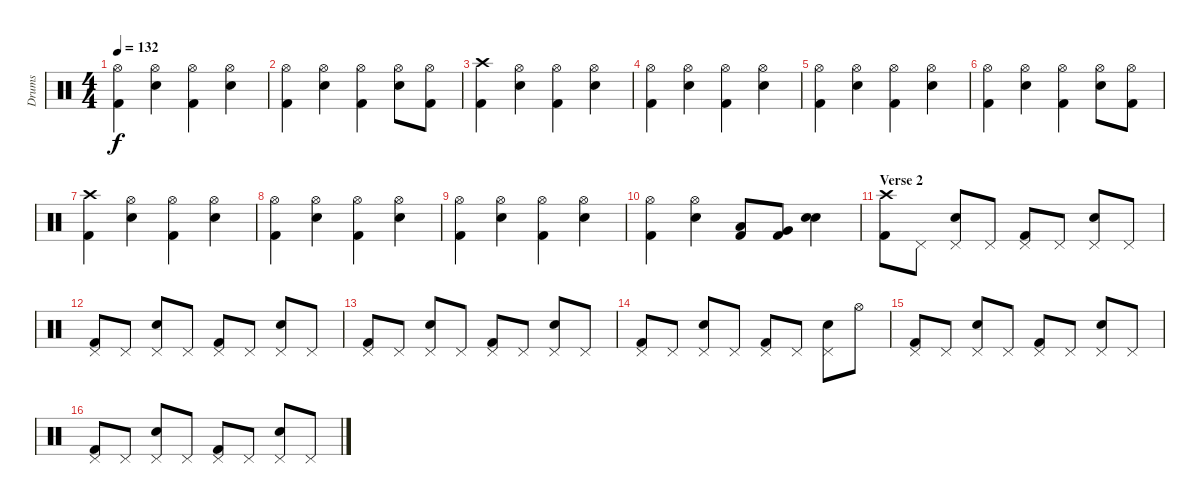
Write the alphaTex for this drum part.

\track ("Drums" "Drums") {instrument percussion}
\staff {score}
\articulation defaults
\ts (4 4)
\tempo 132
\clef neutral
\ks c
("Hi-Hat (open)" "Kick (hit) 2").4{dy f} ("Hi-Hat (open)" "Snare (hit) 2").4 ("Hi-Hat (open)" "Kick (hit) 2").4 ("Hi-Hat (open)" "Snare (hit) 2").4 |
("Hi-Hat (open)" "Kick (hit) 2").4 ("Hi-Hat (open)" "Snare (hit) 2").4 ("Hi-Hat (open)" "Kick (hit) 2").4 ("Hi-Hat (open)" "Snare (hit) 2").8 ("Hi-Hat (open)" "Kick (hit) 2").8 |
("Crash high (hit)" "Kick (hit) 2").4 ("Hi-Hat (open)" "Snare (hit) 2").4 ("Hi-Hat (open)" "Kick (hit) 2").4 ("Hi-Hat (open)" "Snare (hit) 2").4 |
("Hi-Hat (open)" "Kick (hit) 2").4 ("Hi-Hat (open)" "Snare (hit) 2").4 ("Hi-Hat (open)" "Kick (hit) 2").4 ("Hi-Hat (open)" "Snare (hit) 2").4 |
("Hi-Hat (open)" "Kick (hit) 2").4 ("Hi-Hat (open)" "Snare (hit) 2").4 ("Hi-Hat (open)" "Kick (hit) 2").4 ("Hi-Hat (open)" "Snare (hit) 2").4 |
("Hi-Hat (open)" "Kick (hit) 2").4 ("Hi-Hat (open)" "Snare (hit) 2").4 ("Hi-Hat (open)" "Kick (hit) 2").4 ("Hi-Hat (open)" "Snare (hit) 2").8 ("Hi-Hat (open)" "Kick (hit) 2").8 |
("Crash high (hit)" "Kick (hit) 2").4 ("Hi-Hat (open)" "Snare (hit) 2").4 ("Hi-Hat (open)" "Kick (hit) 2").4 ("Hi-Hat (open)" "Snare (hit) 2").4 |
("Hi-Hat (open)" "Kick (hit) 2").4 ("Hi-Hat (open)" "Snare (hit) 2").4 ("Hi-Hat (open)" "Kick (hit) 2").4 ("Hi-Hat (open)" "Snare (hit) 2").4 |
("Hi-Hat (open)" "Kick (hit) 2").4 ("Hi-Hat (open)" "Snare (hit) 2").4 ("Hi-Hat (open)" "Kick (hit) 2").4 ("Hi-Hat (open)" "Snare (hit) 2").4 |
("Hi-Hat (open)" "Kick (hit) 2").4 ("Hi-Hat (open)" "Snare (hit) 2").4 ("Low Tom (hit)" "Kick (hit) 2").8{bd 120} ("Very Low Tom (hit)" "Kick (hit) 2").8{bd 120} ("Snare (hit) 2" "Snare (hit) 2").4{bd 120} |
\section ("" "Verse 2")
("Crash high (hit)" "Kick (hit) 2").8 "Pedal Hi-Hat (hit)".8 ("Pedal Hi-Hat (hit)" "Snare (hit) 2").8 "Pedal Hi-Hat (hit)".8 ("Pedal Hi-Hat (hit)" "Kick (hit) 2").8 "Pedal Hi-Hat (hit)".8 ("Pedal Hi-Hat (hit)" "Snare (hit) 2").8 "Pedal Hi-Hat (hit)".8 |
("Pedal Hi-Hat (hit)" "Kick (hit) 2").8 "Pedal Hi-Hat (hit)".8 ("Pedal Hi-Hat (hit)" "Snare (hit) 2").8 "Pedal Hi-Hat (hit)".8 ("Pedal Hi-Hat (hit)" "Kick (hit) 2").8 "Pedal Hi-Hat (hit)".8 ("Pedal Hi-Hat (hit)" "Snare (hit) 2").8 "Pedal Hi-Hat (hit)".8 |
("Pedal Hi-Hat (hit)" "Kick (hit) 2").8 "Pedal Hi-Hat (hit)".8 ("Pedal Hi-Hat (hit)" "Snare (hit) 2").8 "Pedal Hi-Hat (hit)".8 ("Pedal Hi-Hat (hit)" "Kick (hit) 2").8 "Pedal Hi-Hat (hit)".8 ("Pedal Hi-Hat (hit)" "Snare (hit) 2").8 "Pedal Hi-Hat (hit)".8 |
("Pedal Hi-Hat (hit)" "Kick (hit) 2").8 "Pedal Hi-Hat (hit)".8 ("Pedal Hi-Hat (hit)" "Snare (hit) 2").8 "Pedal Hi-Hat (hit)".8 ("Pedal Hi-Hat (hit)" "Kick (hit) 2").8 "Pedal Hi-Hat (hit)".8 ("Pedal Hi-Hat (hit)" "Snare (hit) 2").8 "Hi-Hat (open)".8 |
("Pedal Hi-Hat (hit)" "Kick (hit) 2").8 "Pedal Hi-Hat (hit)".8 ("Pedal Hi-Hat (hit)" "Snare (hit) 2").8 "Pedal Hi-Hat (hit)".8 ("Pedal Hi-Hat (hit)" "Kick (hit) 2").8 "Pedal Hi-Hat (hit)".8 ("Pedal Hi-Hat (hit)" "Snare (hit) 2").8 "Pedal Hi-Hat (hit)".8 |
("Pedal Hi-Hat (hit)" "Kick (hit) 2").8 "Pedal Hi-Hat (hit)".8 ("Pedal Hi-Hat (hit)" "Snare (hit) 2").8 "Pedal Hi-Hat (hit)".8 ("Pedal Hi-Hat (hit)" "Kick (hit) 2").8 "Pedal Hi-Hat (hit)".8 ("Pedal Hi-Hat (hit)" "Snare (hit) 2").8 "Pedal Hi-Hat (hit)".8
